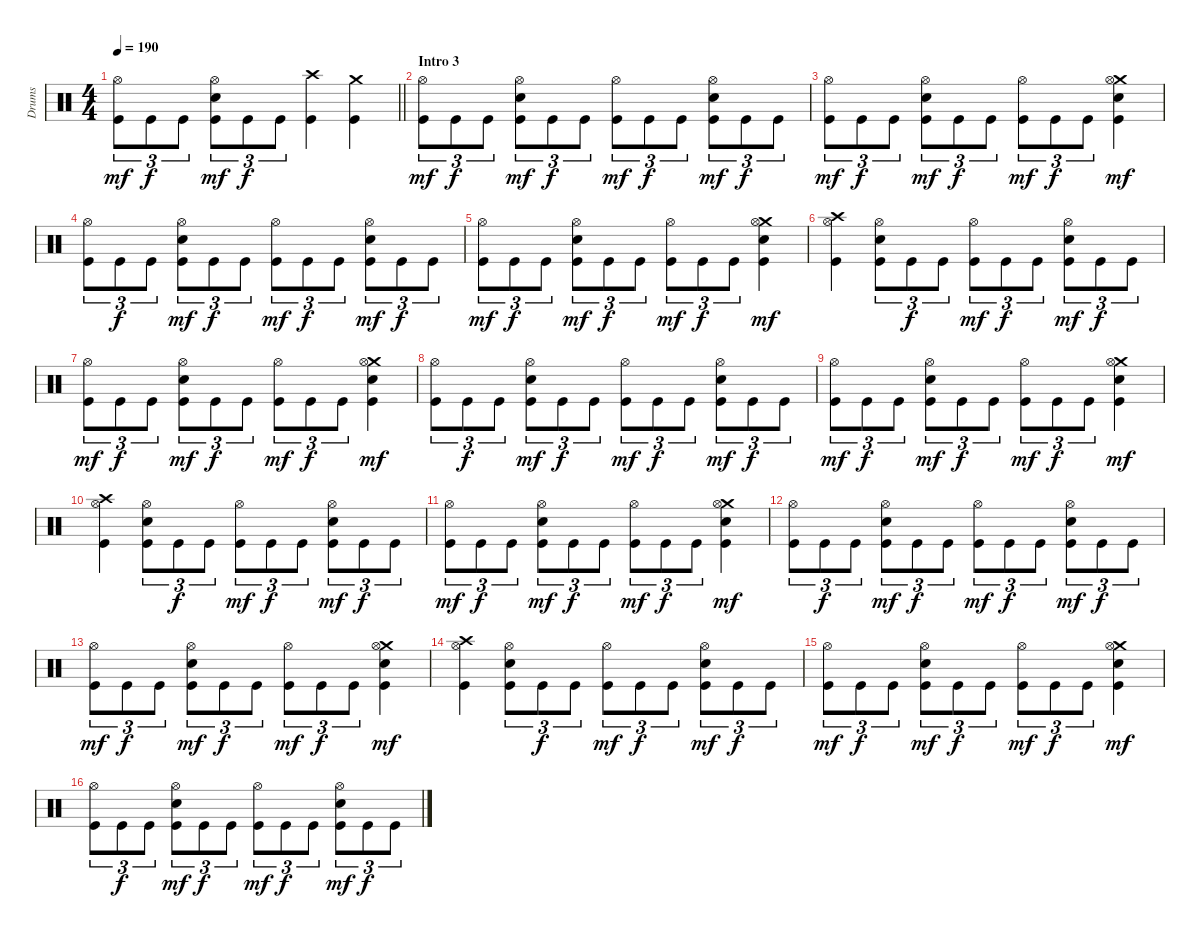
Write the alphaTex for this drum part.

\track ("Drums" "Drums") {instrument percussion}
\staff {score}
\articulation defaults
\ts (4 4)
\tempo 190
\clef neutral
\barLineRight lightlight
\ks c
("Hi-Hat (open)" "Kick (hit)").8{tu (3 2) dy mf} "Kick (hit)".8{tu (3 2) dy f} "Kick (hit)".8{tu (3 2)} ("Hi-Hat (open)" "Electric Snare (hit)" "Kick (hit)").8{tu (3 2) dy mf} "Kick (hit)".8{tu (3 2) dy f} "Kick (hit)".8{tu (3 2)} ("Crash high (hit)" "Kick (hit)").4 ("Crash medium (hit)" "Kick (hit)").4 |
\section ("" "Intro 3")
("Hi-Hat (open)" "Kick (hit)").8{tu (3 2) dy mf} "Kick (hit)".8{tu (3 2) dy f} "Kick (hit)".8{tu (3 2)} ("Hi-Hat (open)" "Electric Snare (hit)" "Kick (hit)").8{tu (3 2) dy mf} "Kick (hit)".8{tu (3 2) dy f} "Kick (hit)".8{tu (3 2)} ("Hi-Hat (open)" "Kick (hit)").8{tu (3 2) dy mf} "Kick (hit)".8{tu (3 2) dy f} "Kick (hit)".8{tu (3 2)} ("Hi-Hat (open)" "Electric Snare (hit)" "Kick (hit)").8{tu (3 2) dy mf} "Kick (hit)".8{tu (3 2) dy f} "Kick (hit)".8{tu (3 2)} |
("Hi-Hat (open)" "Kick (hit)").8{tu (3 2) dy mf} "Kick (hit)".8{tu (3 2) dy f} "Kick (hit)".8{tu (3 2)} ("Hi-Hat (open)" "Electric Snare (hit)" "Kick (hit)").8{tu (3 2) dy mf} "Kick (hit)".8{tu (3 2) dy f} "Kick (hit)".8{tu (3 2)} ("Hi-Hat (open)" "Kick (hit)").8{tu (3 2) dy mf} "Kick (hit)".8{tu (3 2) dy f} "Kick (hit)".8{tu (3 2)} ("Crash medium (hit)" "Hi-Hat (open)" "Electric Snare (hit)" "Kick (hit)").4{dy mf} |
("Hi-Hat (open)" "Kick (hit)").8{tu (3 2)} "Kick (hit)".8{tu (3 2) dy f} "Kick (hit)".8{tu (3 2)} ("Hi-Hat (open)" "Electric Snare (hit)" "Kick (hit)").8{tu (3 2) dy mf} "Kick (hit)".8{tu (3 2) dy f} "Kick (hit)".8{tu (3 2)} ("Hi-Hat (open)" "Kick (hit)").8{tu (3 2) dy mf} "Kick (hit)".8{tu (3 2) dy f} "Kick (hit)".8{tu (3 2)} ("Hi-Hat (open)" "Electric Snare (hit)" "Kick (hit)").8{tu (3 2) dy mf} "Kick (hit)".8{tu (3 2) dy f} "Kick (hit)".8{tu (3 2)} |
("Hi-Hat (open)" "Kick (hit)").8{tu (3 2) dy mf} "Kick (hit)".8{tu (3 2) dy f} "Kick (hit)".8{tu (3 2)} ("Hi-Hat (open)" "Electric Snare (hit)" "Kick (hit)").8{tu (3 2) dy mf} "Kick (hit)".8{tu (3 2) dy f} "Kick (hit)".8{tu (3 2)} ("Hi-Hat (open)" "Kick (hit)").8{tu (3 2) dy mf} "Kick (hit)".8{tu (3 2) dy f} "Kick (hit)".8{tu (3 2)} ("Crash medium (hit)" "Hi-Hat (open)" "Electric Snare (hit)" "Kick (hit)").4{dy mf} |
("Crash high (hit)" "Hi-Hat (open)" "Kick (hit)").4 ("Hi-Hat (open)" "Electric Snare (hit)" "Kick (hit)").8{tu (3 2)} "Kick (hit)".8{tu (3 2) dy f} "Kick (hit)".8{tu (3 2)} ("Hi-Hat (open)" "Kick (hit)").8{tu (3 2) dy mf} "Kick (hit)".8{tu (3 2) dy f} "Kick (hit)".8{tu (3 2)} ("Hi-Hat (open)" "Electric Snare (hit)" "Kick (hit)").8{tu (3 2) dy mf} "Kick (hit)".8{tu (3 2) dy f} "Kick (hit)".8{tu (3 2)} |
("Hi-Hat (open)" "Kick (hit)").8{tu (3 2) dy mf} "Kick (hit)".8{tu (3 2) dy f} "Kick (hit)".8{tu (3 2)} ("Hi-Hat (open)" "Electric Snare (hit)" "Kick (hit)").8{tu (3 2) dy mf} "Kick (hit)".8{tu (3 2) dy f} "Kick (hit)".8{tu (3 2)} ("Hi-Hat (open)" "Kick (hit)").8{tu (3 2) dy mf} "Kick (hit)".8{tu (3 2) dy f} "Kick (hit)".8{tu (3 2)} ("Crash medium (hit)" "Hi-Hat (open)" "Electric Snare (hit)" "Kick (hit)").4{dy mf} |
("Hi-Hat (open)" "Kick (hit)").8{tu (3 2)} "Kick (hit)".8{tu (3 2) dy f} "Kick (hit)".8{tu (3 2)} ("Hi-Hat (open)" "Electric Snare (hit)" "Kick (hit)").8{tu (3 2) dy mf} "Kick (hit)".8{tu (3 2) dy f} "Kick (hit)".8{tu (3 2)} ("Hi-Hat (open)" "Kick (hit)").8{tu (3 2) dy mf} "Kick (hit)".8{tu (3 2) dy f} "Kick (hit)".8{tu (3 2)} ("Hi-Hat (open)" "Electric Snare (hit)" "Kick (hit)").8{tu (3 2) dy mf} "Kick (hit)".8{tu (3 2) dy f} "Kick (hit)".8{tu (3 2)} |
("Hi-Hat (open)" "Kick (hit)").8{tu (3 2) dy mf} "Kick (hit)".8{tu (3 2) dy f} "Kick (hit)".8{tu (3 2)} ("Hi-Hat (open)" "Electric Snare (hit)" "Kick (hit)").8{tu (3 2) dy mf} "Kick (hit)".8{tu (3 2) dy f} "Kick (hit)".8{tu (3 2)} ("Hi-Hat (open)" "Kick (hit)").8{tu (3 2) dy mf} "Kick (hit)".8{tu (3 2) dy f} "Kick (hit)".8{tu (3 2)} ("Crash medium (hit)" "Hi-Hat (open)" "Electric Snare (hit)" "Kick (hit)").4{dy mf} |
("Crash high (hit)" "Hi-Hat (open)" "Kick (hit)").4 ("Hi-Hat (open)" "Electric Snare (hit)" "Kick (hit)").8{tu (3 2)} "Kick (hit)".8{tu (3 2) dy f} "Kick (hit)".8{tu (3 2)} ("Hi-Hat (open)" "Kick (hit)").8{tu (3 2) dy mf} "Kick (hit)".8{tu (3 2) dy f} "Kick (hit)".8{tu (3 2)} ("Hi-Hat (open)" "Electric Snare (hit)" "Kick (hit)").8{tu (3 2) dy mf} "Kick (hit)".8{tu (3 2) dy f} "Kick (hit)".8{tu (3 2)} |
("Hi-Hat (open)" "Kick (hit)").8{tu (3 2) dy mf} "Kick (hit)".8{tu (3 2) dy f} "Kick (hit)".8{tu (3 2)} ("Hi-Hat (open)" "Electric Snare (hit)" "Kick (hit)").8{tu (3 2) dy mf} "Kick (hit)".8{tu (3 2) dy f} "Kick (hit)".8{tu (3 2)} ("Hi-Hat (open)" "Kick (hit)").8{tu (3 2) dy mf} "Kick (hit)".8{tu (3 2) dy f} "Kick (hit)".8{tu (3 2)} ("Crash medium (hit)" "Hi-Hat (open)" "Electric Snare (hit)" "Kick (hit)").4{dy mf} |
("Hi-Hat (open)" "Kick (hit)").8{tu (3 2)} "Kick (hit)".8{tu (3 2) dy f} "Kick (hit)".8{tu (3 2)} ("Hi-Hat (open)" "Electric Snare (hit)" "Kick (hit)").8{tu (3 2) dy mf} "Kick (hit)".8{tu (3 2) dy f} "Kick (hit)".8{tu (3 2)} ("Hi-Hat (open)" "Kick (hit)").8{tu (3 2) dy mf} "Kick (hit)".8{tu (3 2) dy f} "Kick (hit)".8{tu (3 2)} ("Hi-Hat (open)" "Electric Snare (hit)" "Kick (hit)").8{tu (3 2) dy mf} "Kick (hit)".8{tu (3 2) dy f} "Kick (hit)".8{tu (3 2)} |
("Hi-Hat (open)" "Kick (hit)").8{tu (3 2) dy mf} "Kick (hit)".8{tu (3 2) dy f} "Kick (hit)".8{tu (3 2)} ("Hi-Hat (open)" "Electric Snare (hit)" "Kick (hit)").8{tu (3 2) dy mf} "Kick (hit)".8{tu (3 2) dy f} "Kick (hit)".8{tu (3 2)} ("Hi-Hat (open)" "Kick (hit)").8{tu (3 2) dy mf} "Kick (hit)".8{tu (3 2) dy f} "Kick (hit)".8{tu (3 2)} ("Crash medium (hit)" "Hi-Hat (open)" "Electric Snare (hit)" "Kick (hit)").4{dy mf} |
("Crash high (hit)" "Hi-Hat (open)" "Kick (hit)").4 ("Hi-Hat (open)" "Electric Snare (hit)" "Kick (hit)").8{tu (3 2)} "Kick (hit)".8{tu (3 2) dy f} "Kick (hit)".8{tu (3 2)} ("Hi-Hat (open)" "Kick (hit)").8{tu (3 2) dy mf} "Kick (hit)".8{tu (3 2) dy f} "Kick (hit)".8{tu (3 2)} ("Hi-Hat (open)" "Electric Snare (hit)" "Kick (hit)").8{tu (3 2) dy mf} "Kick (hit)".8{tu (3 2) dy f} "Kick (hit)".8{tu (3 2)} |
("Hi-Hat (open)" "Kick (hit)").8{tu (3 2) dy mf} "Kick (hit)".8{tu (3 2) dy f} "Kick (hit)".8{tu (3 2)} ("Hi-Hat (open)" "Electric Snare (hit)" "Kick (hit)").8{tu (3 2) dy mf} "Kick (hit)".8{tu (3 2) dy f} "Kick (hit)".8{tu (3 2)} ("Hi-Hat (open)" "Kick (hit)").8{tu (3 2) dy mf} "Kick (hit)".8{tu (3 2) dy f} "Kick (hit)".8{tu (3 2)} ("Crash medium (hit)" "Hi-Hat (open)" "Electric Snare (hit)" "Kick (hit)").4{dy mf} |
("Hi-Hat (open)" "Kick (hit)").8{tu (3 2)} "Kick (hit)".8{tu (3 2) dy f} "Kick (hit)".8{tu (3 2)} ("Hi-Hat (open)" "Electric Snare (hit)" "Kick (hit)").8{tu (3 2) dy mf} "Kick (hit)".8{tu (3 2) dy f} "Kick (hit)".8{tu (3 2)} ("Hi-Hat (open)" "Kick (hit)").8{tu (3 2) dy mf} "Kick (hit)".8{tu (3 2) dy f} "Kick (hit)".8{tu (3 2)} ("Hi-Hat (open)" "Electric Snare (hit)" "Kick (hit)").8{tu (3 2) dy mf} "Kick (hit)".8{tu (3 2) dy f} "Kick (hit)".8{tu (3 2)}
